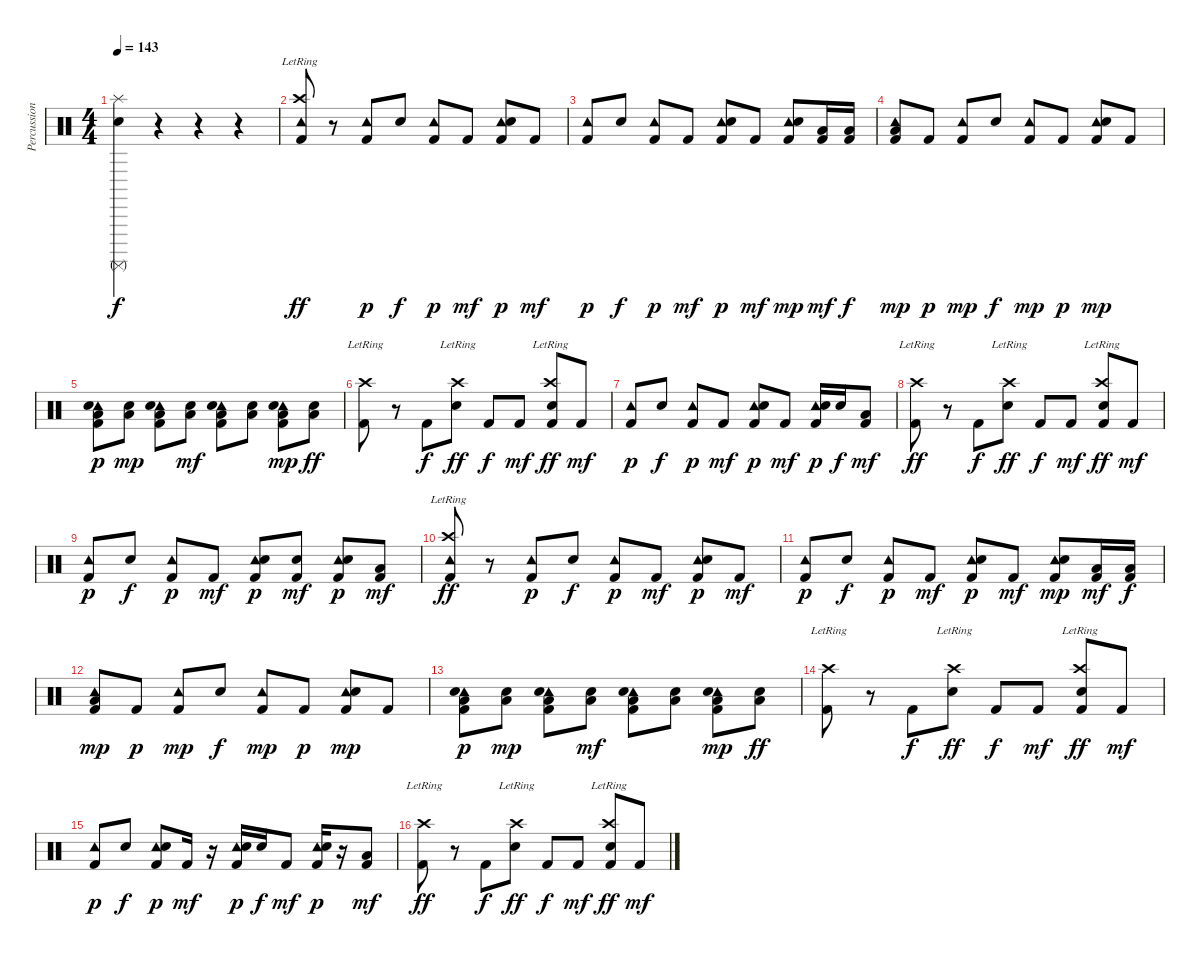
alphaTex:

\track ("Percussion" "Percussion") {instrument percussion}
\staff {score}
\articulation defaults
\ts (4 4)
\tempo 143
\clef neutral
\ks c
("Splash (hit)" "Surdo (mute)" "Electric Snare (hit)").4{dy f} r.4 r.4 r.4 |
("Tambourine (hit)" "Crash high (hit)"{lr} "Kick (hit) 2").8{dy ff} r.8 ("Tambourine (hit)" "Kick (hit) 2").8{dy p} "Electric Snare (hit)".8{dy f} ("Tambourine (hit)" "Kick (hit) 2").8{dy p} "Kick (hit) 2".8{dy mf} ("Tambourine (hit)" "Electric Snare (hit)" "Kick (hit) 2").8{dy p} "Kick (hit) 2".8{dy mf} |
("Tambourine (hit)" "Kick (hit) 2").8{dy p} "Electric Snare (hit)".8{dy f} ("Tambourine (hit)" "Kick (hit) 2").8{dy p} "Kick (hit) 2".8{dy mf} ("Tambourine (hit)" "Electric Snare (hit)" "Kick (hit) 2").8{dy p} "Kick (hit) 2".8{dy mf} ("Tambourine (hit)" "Electric Snare (hit)" "Kick (hit) 2").8{dy mp} ("Low Floor Tom (hit)" "Kick (hit) 2").16{dy mf} ("Low Floor Tom (hit)" "Kick (hit) 2").16{dy f} |
("Tambourine (hit)" "Low Floor Tom (hit)" "Kick (hit) 2").8{dy mp} "Kick (hit) 2".8{dy p} ("Tambourine (hit)" "Kick (hit) 2").8{dy mp} "Electric Snare (hit)".8{dy f} ("Tambourine (hit)" "Kick (hit) 2").8{dy mp} "Kick (hit) 2".8{dy p} ("Tambourine (hit)" "Electric Snare (hit)" "Kick (hit) 2").8{dy mp} "Kick (hit) 2".8 |
("Tambourine (hit)" "Electric Snare (hit)" "Low Floor Tom (hit)" "Kick (hit) 2").8{dy p} ("Electric Snare (hit)" "Low Floor Tom (hit)").8{dy mp} ("Tambourine (hit)" "Electric Snare (hit)" "Low Floor Tom (hit)" "Kick (hit) 2").8 ("Electric Snare (hit)" "Low Floor Tom (hit)").8{dy mf} ("Tambourine (hit)" "Electric Snare (hit)" "Low Floor Tom (hit)" "Kick (hit) 2").8 ("Electric Snare (hit)" "Low Floor Tom (hit)").8 ("Tambourine (hit)" "Electric Snare (hit)" "Low Floor Tom (hit)" "Kick (hit) 2").8{dy mp} ("Electric Snare (hit)" "Low Floor Tom (hit)").8{dy ff} |
("Crash high (hit)"{lr} "Kick (hit) 2").8 r.8 "Kick (hit) 2".8{dy f} ("Crash high (hit)"{lr} "Electric Snare (hit)").8{dy ff} "Kick (hit) 2".8{dy f} "Kick (hit) 2".8{dy mf} ("Crash high (hit)"{lr} "Electric Snare (hit)" "Kick (hit) 2").8{dy ff} "Kick (hit) 2".8{dy mf} |
("Tambourine (hit)" "Kick (hit) 2").8{dy p} "Electric Snare (hit)".8{dy f} ("Tambourine (hit)" "Kick (hit) 2").8{dy p} "Kick (hit) 2".8{dy mf} ("Tambourine (hit)" "Electric Snare (hit)" "Kick (hit) 2").8{dy p} "Kick (hit) 2".8{dy mf} ("Tambourine (hit)" "Electric Snare (hit)" "Kick (hit) 2").16{dy p} "Electric Snare (hit)".16{dy f} ("Low Floor Tom (hit)" "Kick (hit) 2").8{dy mf} |
("Crash high (hit)"{lr} "Kick (hit) 2").8{dy ff} r.8 "Kick (hit) 2".8{dy f} ("Crash high (hit)"{lr} "Electric Snare (hit)").8{dy ff} "Kick (hit) 2".8{dy f} "Kick (hit) 2".8{dy mf} ("Crash high (hit)"{lr} "Electric Snare (hit)" "Kick (hit) 2").8{dy ff} "Kick (hit) 2".8{dy mf} |
("Tambourine (hit)" "Kick (hit) 2").8{dy p} "Electric Snare (hit)".8{dy f} ("Tambourine (hit)" "Kick (hit) 2").8{dy p} "Kick (hit) 2".8{dy mf} ("Tambourine (hit)" "Electric Snare (hit)" "Kick (hit) 2").8{dy p} ("Electric Snare (hit)" "Kick (hit) 2").8{dy mf} ("Tambourine (hit)" "Electric Snare (hit)" "Kick (hit) 2").8{dy p} ("Low Floor Tom (hit)" "Kick (hit) 2").8{dy mf} |
("Tambourine (hit)" "Crash high (hit)"{lr} "Kick (hit) 2").8{dy ff} r.8 ("Tambourine (hit)" "Kick (hit) 2").8{dy p} "Electric Snare (hit)".8{dy f} ("Tambourine (hit)" "Kick (hit) 2").8{dy p} "Kick (hit) 2".8{dy mf} ("Tambourine (hit)" "Electric Snare (hit)" "Kick (hit) 2").8{dy p} "Kick (hit) 2".8{dy mf} |
("Tambourine (hit)" "Kick (hit) 2").8{dy p} "Electric Snare (hit)".8{dy f} ("Tambourine (hit)" "Kick (hit) 2").8{dy p} "Kick (hit) 2".8{dy mf} ("Tambourine (hit)" "Electric Snare (hit)" "Kick (hit) 2").8{dy p} "Kick (hit) 2".8{dy mf} ("Tambourine (hit)" "Electric Snare (hit)" "Kick (hit) 2").8{dy mp} ("Low Floor Tom (hit)" "Kick (hit) 2").16{dy mf} ("Low Floor Tom (hit)" "Kick (hit) 2").16{dy f} |
("Tambourine (hit)" "Low Floor Tom (hit)" "Kick (hit) 2").8{dy mp} "Kick (hit) 2".8{dy p} ("Tambourine (hit)" "Kick (hit) 2").8{dy mp} "Electric Snare (hit)".8{dy f} ("Tambourine (hit)" "Kick (hit) 2").8{dy mp} "Kick (hit) 2".8{dy p} ("Tambourine (hit)" "Electric Snare (hit)" "Kick (hit) 2").8{dy mp} "Kick (hit) 2".8 |
("Tambourine (hit)" "Electric Snare (hit)" "Low Floor Tom (hit)" "Kick (hit) 2").8{dy p} ("Electric Snare (hit)" "Low Floor Tom (hit)").8{dy mp} ("Tambourine (hit)" "Electric Snare (hit)" "Low Floor Tom (hit)" "Kick (hit) 2").8 ("Electric Snare (hit)" "Low Floor Tom (hit)").8{dy mf} ("Tambourine (hit)" "Electric Snare (hit)" "Low Floor Tom (hit)" "Kick (hit) 2").8 ("Electric Snare (hit)" "Low Floor Tom (hit)").8 ("Tambourine (hit)" "Electric Snare (hit)" "Low Floor Tom (hit)" "Kick (hit) 2").8{dy mp} ("Electric Snare (hit)" "Low Floor Tom (hit)").8{dy ff} |
("Crash high (hit)"{lr} "Kick (hit) 2").8 r.8 "Kick (hit) 2".8{dy f} ("Crash high (hit)"{lr} "Electric Snare (hit)").8{dy ff} "Kick (hit) 2".8{dy f} "Kick (hit) 2".8{dy mf} ("Crash high (hit)"{lr} "Electric Snare (hit)" "Kick (hit) 2").8{dy ff} "Kick (hit) 2".8{dy mf} |
("Tambourine (hit)" "Kick (hit) 2").8{dy p} "Electric Snare (hit)".8{dy f} ("Tambourine (hit)" "Electric Snare (hit)" "Kick (hit) 2").8{dy p} "Kick (hit) 2".16{dy mf} r.16 ("Tambourine (hit)" "Electric Snare (hit)" "Kick (hit) 2").16{dy p} "Electric Snare (hit)".16{dy f} "Kick (hit) 2".8{dy mf} ("Tambourine (hit)" "Electric Snare (hit)" "Kick (hit) 2").16{dy p} r.16 ("Low Floor Tom (hit)" "Kick (hit) 2").8{dy mf} |
("Crash high (hit)"{lr} "Kick (hit) 2").8{dy ff} r.8 "Kick (hit) 2".8{dy f} ("Crash high (hit)"{lr} "Electric Snare (hit)").8{dy ff} "Kick (hit) 2".8{dy f} "Kick (hit) 2".8{dy mf} ("Crash high (hit)"{lr} "Electric Snare (hit)" "Kick (hit) 2").8{dy ff} "Kick (hit) 2".8{dy mf}
